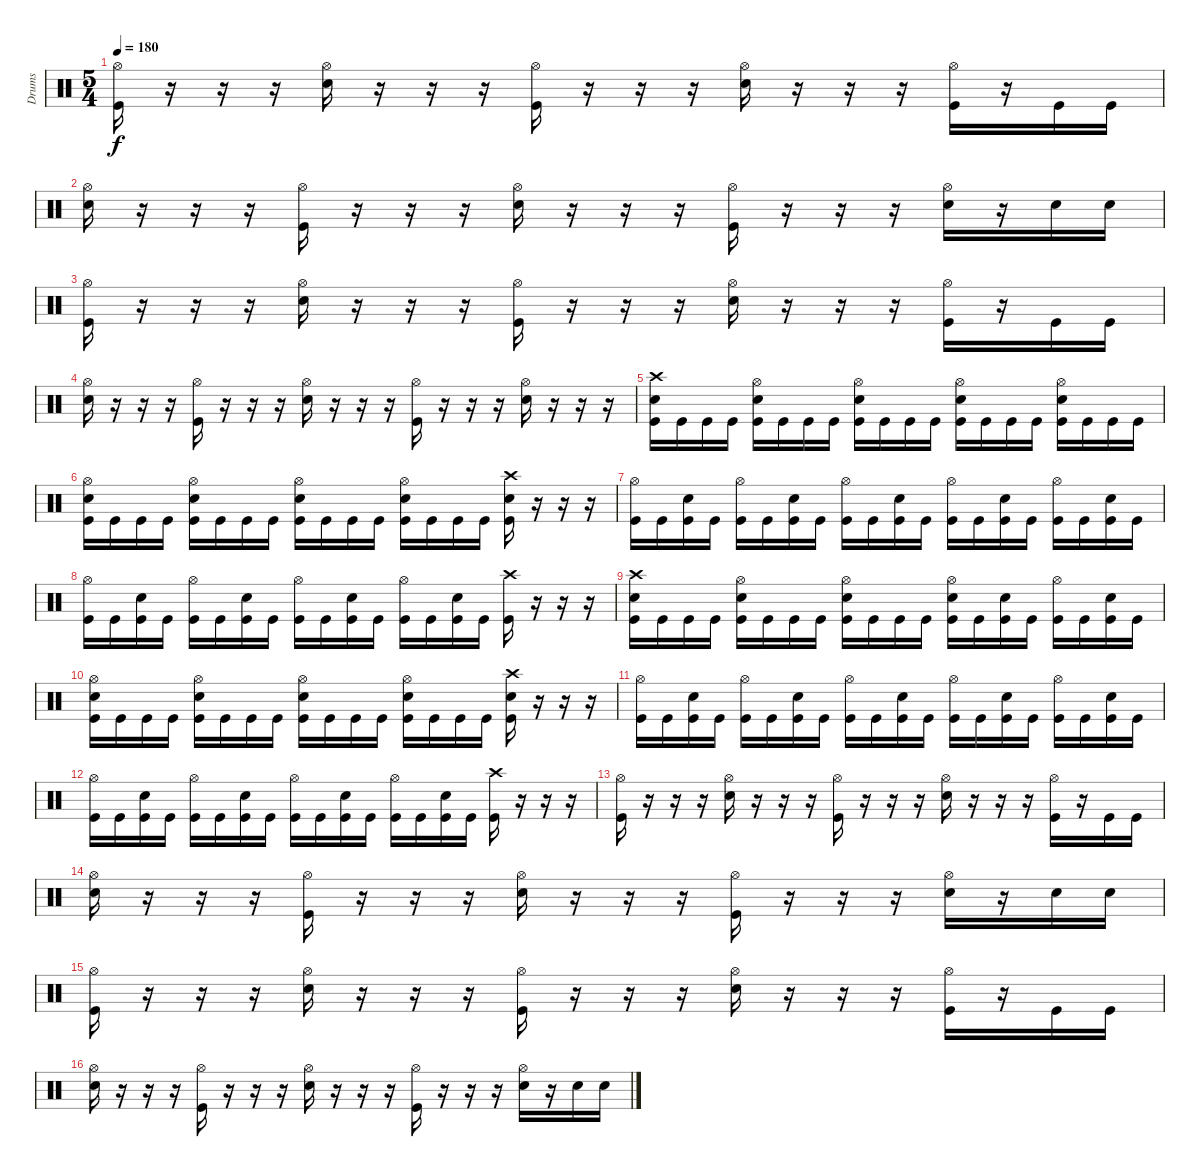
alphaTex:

\track ("Drums" "Drums") {instrument percussion}
\staff {score}
\articulation defaults
\ts (5 4)
\tempo 180
\clef neutral
\ks c
("Hi-Hat (open)" "Kick (hit)").16{dy f} r.16 r.16 r.16 ("Hi-Hat (open)" "Snare (hit) 2").16 r.16 r.16 r.16 ("Hi-Hat (open)" "Kick (hit)").16 r.16 r.16 r.16 ("Hi-Hat (open)" "Snare (hit) 2").16 r.16 r.16 r.16 ("Hi-Hat (open)" "Kick (hit)").16 r.16 "Kick (hit)".16 "Kick (hit)".16 |
("Hi-Hat (open)" "Snare (hit) 2").16 r.16 r.16 r.16 ("Hi-Hat (open)" "Kick (hit)").16 r.16 r.16 r.16 ("Hi-Hat (open)" "Snare (hit) 2").16 r.16 r.16 r.16 ("Hi-Hat (open)" "Kick (hit)").16 r.16 r.16 r.16 ("Hi-Hat (open)" "Snare (hit) 2").16 r.16 "Snare (hit) 2".16 "Snare (hit) 2".16 |
("Hi-Hat (open)" "Kick (hit)").16 r.16 r.16 r.16 ("Hi-Hat (open)" "Snare (hit) 2").16 r.16 r.16 r.16 ("Hi-Hat (open)" "Kick (hit)").16 r.16 r.16 r.16 ("Hi-Hat (open)" "Snare (hit) 2").16 r.16 r.16 r.16 ("Hi-Hat (open)" "Kick (hit)").16 r.16 "Kick (hit)".16 "Kick (hit)".16 |
("Hi-Hat (open)" "Snare (hit) 2").16 r.16 r.16 r.16 ("Hi-Hat (open)" "Kick (hit)").16 r.16 r.16 r.16 ("Hi-Hat (open)" "Snare (hit) 2").16 r.16 r.16 r.16 ("Hi-Hat (open)" "Kick (hit)").16 r.16 r.16 r.16 ("Hi-Hat (open)" "Snare (hit) 2").16 r.16 r.16 r.16 |
("Crash high (hit)" "Snare (hit) 2" "Kick (hit)").16 "Kick (hit)".16 "Kick (hit)".16 "Kick (hit)".16 ("Hi-Hat (open)" "Snare (hit) 2" "Kick (hit)").16 "Kick (hit)".16 "Kick (hit)".16 "Kick (hit)".16 ("Hi-Hat (open)" "Snare (hit) 2" "Kick (hit)").16 "Kick (hit)".16 "Kick (hit)".16 "Kick (hit)".16 ("Hi-Hat (open)" "Snare (hit) 2" "Kick (hit)").16 "Kick (hit)".16 "Kick (hit)".16 "Kick (hit)".16 ("Hi-Hat (open)" "Snare (hit) 2" "Kick (hit)").16 "Kick (hit)".16 "Kick (hit)".16 "Kick (hit)".16 |
("Hi-Hat (open)" "Snare (hit) 2" "Kick (hit)").16 "Kick (hit)".16 "Kick (hit)".16 "Kick (hit)".16 ("Hi-Hat (open)" "Snare (hit) 2" "Kick (hit)").16 "Kick (hit)".16 "Kick (hit)".16 "Kick (hit)".16 ("Hi-Hat (open)" "Snare (hit) 2" "Kick (hit)").16 "Kick (hit)".16 "Kick (hit)".16 "Kick (hit)".16 ("Hi-Hat (open)" "Snare (hit) 2" "Kick (hit)").16 "Kick (hit)".16 "Kick (hit)".16 "Kick (hit)".16 ("Crash high (hit)" "Snare (hit) 2" "Kick (hit)").16 r.16 r.16 r.16 |
("Hi-Hat (open)" "Kick (hit)").16 "Kick (hit)".16 ("Snare (hit) 2" "Kick (hit)").16 "Kick (hit)".16 ("Hi-Hat (open)" "Kick (hit)").16 "Kick (hit)".16 ("Snare (hit) 2" "Kick (hit)").16 "Kick (hit)".16 ("Hi-Hat (open)" "Kick (hit)").16 "Kick (hit)".16 ("Snare (hit) 2" "Kick (hit)").16 "Kick (hit)".16 ("Hi-Hat (open)" "Kick (hit)").16 "Kick (hit)".16 ("Snare (hit) 2" "Kick (hit)").16 "Kick (hit)".16 ("Hi-Hat (open)" "Kick (hit)").16 "Kick (hit)".16 ("Snare (hit) 2" "Kick (hit)").16 "Kick (hit)".16 |
("Hi-Hat (open)" "Kick (hit)").16 "Kick (hit)".16 ("Snare (hit) 2" "Kick (hit)").16 "Kick (hit)".16 ("Hi-Hat (open)" "Kick (hit)").16 "Kick (hit)".16 ("Snare (hit) 2" "Kick (hit)").16 "Kick (hit)".16 ("Hi-Hat (open)" "Kick (hit)").16 "Kick (hit)".16 ("Snare (hit) 2" "Kick (hit)").16 "Kick (hit)".16 ("Hi-Hat (open)" "Kick (hit)").16 "Kick (hit)".16 ("Snare (hit) 2" "Kick (hit)").16 "Kick (hit)".16 ("Crash high (hit)" "Kick (hit)").16 r.16 r.16 r.16 |
("Crash high (hit)" "Snare (hit) 2" "Kick (hit)").16 "Kick (hit)".16 "Kick (hit)".16 "Kick (hit)".16 ("Hi-Hat (open)" "Snare (hit) 2" "Kick (hit)").16 "Kick (hit)".16 "Kick (hit)".16 "Kick (hit)".16 ("Hi-Hat (open)" "Snare (hit) 2" "Kick (hit)").16 "Kick (hit)".16 "Kick (hit)".16 "Kick (hit)".16 ("Hi-Hat (open)" "Snare (hit) 2" "Kick (hit)").16 "Kick (hit)".16 ("Snare (hit) 2" "Kick (hit)").16 "Kick (hit)".16 ("Hi-Hat (open)" "Kick (hit)").16 "Kick (hit)".16 ("Snare (hit) 2" "Kick (hit)").16 "Kick (hit)".16 |
("Hi-Hat (open)" "Snare (hit) 2" "Kick (hit)").16 "Kick (hit)".16 "Kick (hit)".16 "Kick (hit)".16 ("Hi-Hat (open)" "Snare (hit) 2" "Kick (hit)").16 "Kick (hit)".16 "Kick (hit)".16 "Kick (hit)".16 ("Hi-Hat (open)" "Snare (hit) 2" "Kick (hit)").16 "Kick (hit)".16 "Kick (hit)".16 "Kick (hit)".16 ("Hi-Hat (open)" "Snare (hit) 2" "Kick (hit)").16 "Kick (hit)".16 "Kick (hit)".16 "Kick (hit)".16 ("Crash high (hit)" "Snare (hit) 2" "Kick (hit)").16 r.16 r.16 r.16 |
("Hi-Hat (open)" "Kick (hit)").16 "Kick (hit)".16 ("Snare (hit) 2" "Kick (hit)").16 "Kick (hit)".16 ("Hi-Hat (open)" "Kick (hit)").16 "Kick (hit)".16 ("Snare (hit) 2" "Kick (hit)").16 "Kick (hit)".16 ("Hi-Hat (open)" "Kick (hit)").16 "Kick (hit)".16 ("Snare (hit) 2" "Kick (hit)").16 "Kick (hit)".16 ("Hi-Hat (open)" "Kick (hit)").16 "Kick (hit)".16 ("Snare (hit) 2" "Kick (hit)").16 "Kick (hit)".16 ("Hi-Hat (open)" "Kick (hit)").16 "Kick (hit)".16 ("Snare (hit) 2" "Kick (hit)").16 "Kick (hit)".16 |
("Hi-Hat (open)" "Kick (hit)").16 "Kick (hit)".16 ("Snare (hit) 2" "Kick (hit)").16 "Kick (hit)".16 ("Hi-Hat (open)" "Kick (hit)").16 "Kick (hit)".16 ("Snare (hit) 2" "Kick (hit)").16 "Kick (hit)".16 ("Hi-Hat (open)" "Kick (hit)").16 "Kick (hit)".16 ("Snare (hit) 2" "Kick (hit)").16 "Kick (hit)".16 ("Hi-Hat (open)" "Kick (hit)").16 "Kick (hit)".16 ("Snare (hit) 2" "Kick (hit)").16 "Kick (hit)".16 ("Crash high (hit)" "Kick (hit)").16 r.16 r.16 r.16 |
("Hi-Hat (open)" "Kick (hit)").16 r.16 r.16 r.16 ("Hi-Hat (open)" "Snare (hit) 2").16 r.16 r.16 r.16 ("Hi-Hat (open)" "Kick (hit)").16 r.16 r.16 r.16 ("Hi-Hat (open)" "Snare (hit) 2").16 r.16 r.16 r.16 ("Hi-Hat (open)" "Kick (hit)").16 r.16 "Kick (hit)".16 "Kick (hit)".16 |
("Hi-Hat (open)" "Snare (hit) 2").16 r.16 r.16 r.16 ("Hi-Hat (open)" "Kick (hit)").16 r.16 r.16 r.16 ("Hi-Hat (open)" "Snare (hit) 2").16 r.16 r.16 r.16 ("Hi-Hat (open)" "Kick (hit)").16 r.16 r.16 r.16 ("Hi-Hat (open)" "Snare (hit) 2").16 r.16 "Snare (hit) 2".16 "Snare (hit) 2".16 |
("Hi-Hat (open)" "Kick (hit)").16 r.16 r.16 r.16 ("Hi-Hat (open)" "Snare (hit) 2").16 r.16 r.16 r.16 ("Hi-Hat (open)" "Kick (hit)").16 r.16 r.16 r.16 ("Hi-Hat (open)" "Snare (hit) 2").16 r.16 r.16 r.16 ("Hi-Hat (open)" "Kick (hit)").16 r.16 "Kick (hit)".16 "Kick (hit)".16 |
("Hi-Hat (open)" "Snare (hit) 2").16 r.16 r.16 r.16 ("Hi-Hat (open)" "Kick (hit)").16 r.16 r.16 r.16 ("Hi-Hat (open)" "Snare (hit) 2").16 r.16 r.16 r.16 ("Hi-Hat (open)" "Kick (hit)").16 r.16 r.16 r.16 ("Hi-Hat (open)" "Snare (hit) 2").16 r.16 "Snare (hit) 2".16 "Snare (hit) 2".16
